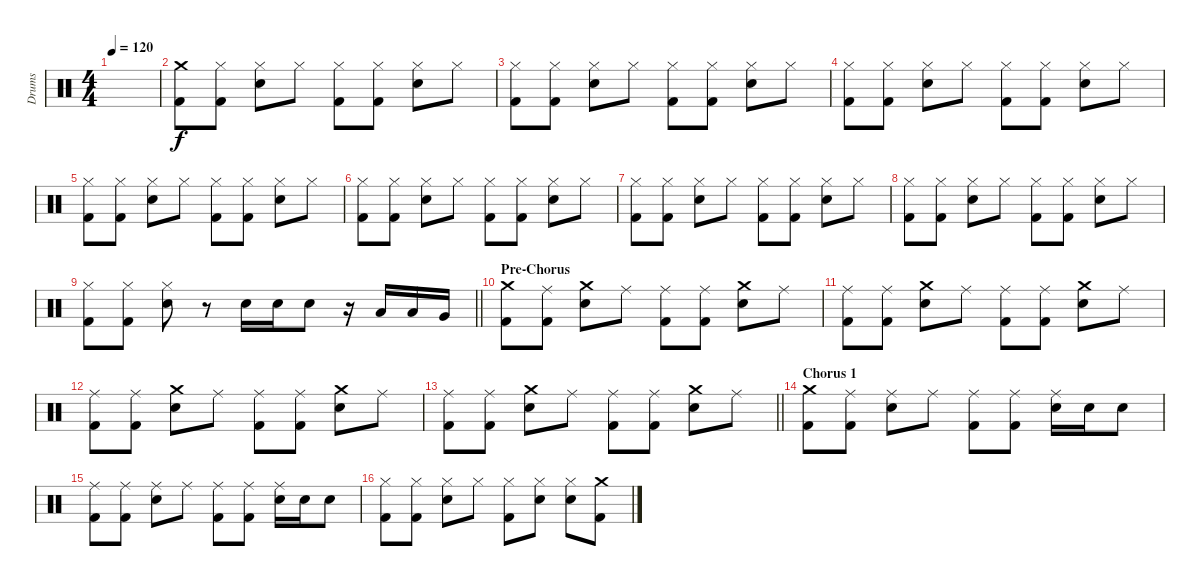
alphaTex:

\track ("Drums" "Drums") {instrument percussion}
\staff {score}
\articulation defaults
\ts (4 4)
\tempo 120
\clef neutral
\ks c
|
("Crash medium (hit)" "Kick (hit) 2").8 ("Hi-Hat (closed)" "Kick (hit) 2").8 ("Hi-Hat (closed)" "Electric Snare (hit)").8 "Hi-Hat (closed)".8 ("Hi-Hat (closed)" "Kick (hit) 2").8 ("Hi-Hat (closed)" "Kick (hit) 2").8 ("Hi-Hat (closed)" "Electric Snare (hit)").8 "Hi-Hat (closed)".8 |
("Hi-Hat (closed)" "Kick (hit) 2").8 ("Hi-Hat (closed)" "Kick (hit) 2").8 ("Hi-Hat (closed)" "Electric Snare (hit)").8 "Hi-Hat (closed)".8 ("Hi-Hat (closed)" "Kick (hit) 2").8 ("Hi-Hat (closed)" "Kick (hit) 2").8 ("Hi-Hat (closed)" "Electric Snare (hit)").8 "Hi-Hat (closed)".8 |
("Hi-Hat (closed)" "Kick (hit) 2").8 ("Hi-Hat (closed)" "Kick (hit) 2").8 ("Hi-Hat (closed)" "Electric Snare (hit)").8 "Hi-Hat (closed)".8 ("Hi-Hat (closed)" "Kick (hit) 2").8 ("Hi-Hat (closed)" "Kick (hit) 2").8 ("Hi-Hat (closed)" "Electric Snare (hit)").8 "Hi-Hat (closed)".8 |
("Hi-Hat (closed)" "Kick (hit) 2").8 ("Hi-Hat (closed)" "Kick (hit) 2").8 ("Hi-Hat (closed)" "Electric Snare (hit)").8 "Hi-Hat (closed)".8 ("Hi-Hat (closed)" "Kick (hit) 2").8 ("Hi-Hat (closed)" "Kick (hit) 2").8 ("Hi-Hat (closed)" "Electric Snare (hit)").8 "Hi-Hat (closed)".8 |
("Hi-Hat (closed)" "Kick (hit) 2").8 ("Hi-Hat (closed)" "Kick (hit) 2").8 ("Hi-Hat (closed)" "Electric Snare (hit)").8 "Hi-Hat (closed)".8 ("Hi-Hat (closed)" "Kick (hit) 2").8 ("Hi-Hat (closed)" "Kick (hit) 2").8 ("Hi-Hat (closed)" "Electric Snare (hit)").8 "Hi-Hat (closed)".8 |
("Hi-Hat (closed)" "Kick (hit) 2").8 ("Hi-Hat (closed)" "Kick (hit) 2").8 ("Hi-Hat (closed)" "Electric Snare (hit)").8 "Hi-Hat (closed)".8 ("Hi-Hat (closed)" "Kick (hit) 2").8 ("Hi-Hat (closed)" "Kick (hit) 2").8 ("Hi-Hat (closed)" "Electric Snare (hit)").8 "Hi-Hat (closed)".8 |
("Hi-Hat (closed)" "Kick (hit) 2").8 ("Hi-Hat (closed)" "Kick (hit) 2").8 ("Hi-Hat (closed)" "Electric Snare (hit)").8 "Hi-Hat (closed)".8 ("Hi-Hat (closed)" "Kick (hit) 2").8 ("Hi-Hat (closed)" "Kick (hit) 2").8 ("Hi-Hat (closed)" "Electric Snare (hit)").8 "Hi-Hat (closed)".8 |
\barLineRight lightlight
("Hi-Hat (closed)" "Kick (hit) 2").8 ("Hi-Hat (closed)" "Kick (hit) 2").8 ("Hi-Hat (closed)" "Electric Snare (hit)").8 r.8 "Electric Snare (hit)".16 "Electric Snare (hit)".16 "Electric Snare (hit)".8 r.16 "Low Tom (hit)".16 "Low Tom (hit)".16 "Very Low Tom (hit)".16 |
\section ("" "Pre-Chorus")
("Crash medium (hit)" "Kick (hit) 2").8 ("Ride (middle)" "Kick (hit) 2").8 ("Crash medium (hit)" "Electric Snare (hit)").8 "Ride (middle)".8 ("Ride (middle)" "Kick (hit) 2").8 ("Ride (middle)" "Kick (hit) 2").8 ("Crash medium (hit)" "Electric Snare (hit)").8 "Ride (middle)".8 |
("Ride (middle)" "Kick (hit) 2").8 ("Ride (middle)" "Kick (hit) 2").8 ("Crash medium (hit)" "Electric Snare (hit)").8 "Ride (middle)".8 ("Ride (middle)" "Kick (hit) 2").8 ("Ride (middle)" "Kick (hit) 2").8 ("Crash medium (hit)" "Electric Snare (hit)").8 "Ride (middle)".8 |
("Ride (middle)" "Kick (hit) 2").8 ("Ride (middle)" "Kick (hit) 2").8 ("Crash medium (hit)" "Electric Snare (hit)").8 "Ride (middle)".8 ("Ride (middle)" "Kick (hit) 2").8 ("Ride (middle)" "Kick (hit) 2").8 ("Crash medium (hit)" "Electric Snare (hit)").8 "Ride (middle)".8 |
\barLineRight lightlight
("Ride (middle)" "Kick (hit) 2").8 ("Ride (middle)" "Kick (hit) 2").8 ("Crash medium (hit)" "Electric Snare (hit)").8 "Ride (middle)".8 ("Ride (middle)" "Kick (hit) 2").8 ("Ride (middle)" "Kick (hit) 2").8 ("Crash medium (hit)" "Electric Snare (hit)").8 "Ride (middle)".8 |
\section ("" "Chorus 1")
("Crash medium (hit)" "Kick (hit) 2").8 ("Ride (middle)" "Kick (hit) 2").8 ("Ride (middle)" "Electric Snare (hit)").8 "Ride (middle)".8 ("Ride (middle)" "Kick (hit) 2").8 ("Ride (middle)" "Kick (hit) 2").8 ("Ride (middle)" "Electric Snare (hit)").16 "Electric Snare (hit)".16 "Electric Snare (hit)".8 |
("Ride (middle)" "Kick (hit) 2").8 ("Ride (middle)" "Kick (hit) 2").8 ("Ride (middle)" "Electric Snare (hit)").8 "Ride (middle)".8 ("Ride (middle)" "Kick (hit) 2").8 ("Ride (middle)" "Kick (hit) 2").8 ("Ride (middle)" "Electric Snare (hit)").16 "Electric Snare (hit)".16 "Electric Snare (hit)".8 |
("Hi-Hat (closed)" "Kick (hit) 2").8 ("Hi-Hat (closed)" "Kick (hit) 2").8 ("Hi-Hat (closed)" "Electric Snare (hit)").8 "Hi-Hat (closed)".8 ("Hi-Hat (closed)" "Kick (hit) 2").8 ("Hi-Hat (closed)" "Electric Snare (hit)").8 ("Hi-Hat (closed)" "Electric Snare (hit)").8 ("Crash medium (hit)" "Kick (hit) 2").8
